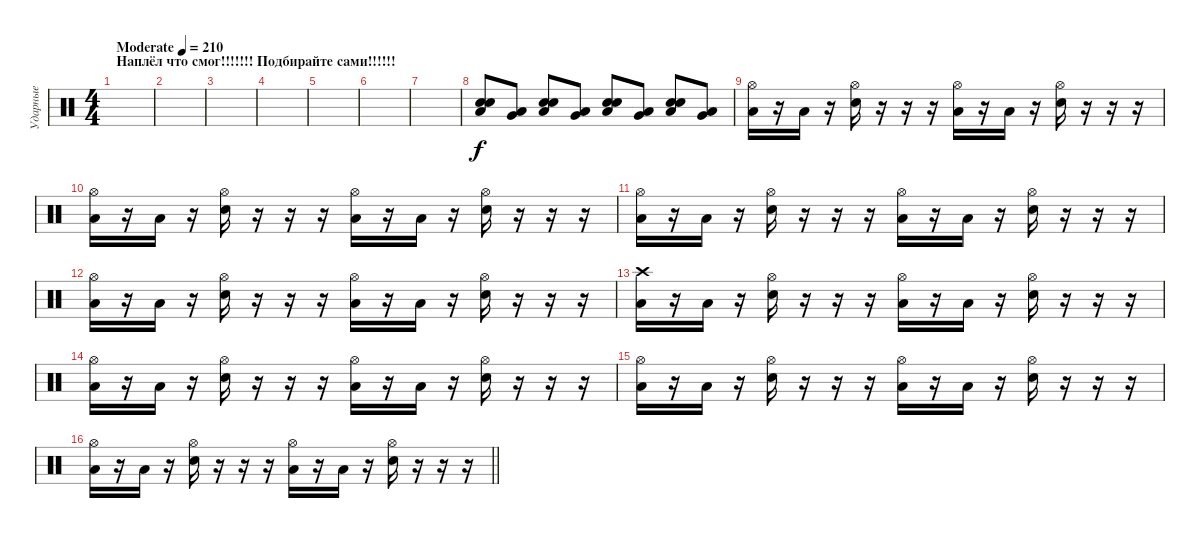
\track ("Ударные" "Ударные") {instrument percussion}
\staff {score}
\articulation defaults
\ts (4 4)
\section ("" "Наплёл что смог!!!!!!! Подбирайте сами!!!!!!")
\tempo (210 "Moderate")
\clef neutral
\ks c
|
|
|
|
|
|
|
("Electric Snare (hit)" "Snare (hit) 2" "Low Tom (hit)").8 ("Very Low Tom (hit)" "Low Floor Tom (hit)").8 ("Electric Snare (hit)" "Snare (hit) 2" "Low Tom (hit)").8 ("Very Low Tom (hit)" "Low Floor Tom (hit)").8 ("Electric Snare (hit)" "Snare (hit) 2" "Low Tom (hit)").8 ("Very Low Tom (hit)" "Low Floor Tom (hit)").8 ("Electric Snare (hit)" "Snare (hit) 2" "Low Tom (hit)").8 ("Very Low Tom (hit)" "Low Floor Tom (hit)").8 |
("Low Floor Tom (hit)" "Hi-Hat (open)").16 r.16 "Low Floor Tom (hit)".16 r.16 ("Hi-Hat (open)" "Electric Snare (hit)").16 r.16 r.16 r.16 ("Hi-Hat (open)" "Low Floor Tom (hit)").16 r.16 "Low Floor Tom (hit)".16 r.16 ("Hi-Hat (open)" "Electric Snare (hit)").16 r.16 r.16 r.16 |
("Low Floor Tom (hit)" "Hi-Hat (open)").16 r.16 "Low Floor Tom (hit)".16 r.16 ("Hi-Hat (open)" "Electric Snare (hit)").16 r.16 r.16 r.16 ("Hi-Hat (open)" "Low Floor Tom (hit)").16 r.16 "Low Floor Tom (hit)".16 r.16 ("Hi-Hat (open)" "Electric Snare (hit)").16 r.16 r.16 r.16 |
("Low Floor Tom (hit)" "Hi-Hat (open)").16 r.16 "Low Floor Tom (hit)".16 r.16 ("Hi-Hat (open)" "Electric Snare (hit)").16 r.16 r.16 r.16 ("Hi-Hat (open)" "Low Floor Tom (hit)").16 r.16 "Low Floor Tom (hit)".16 r.16 ("Hi-Hat (open)" "Electric Snare (hit)").16 r.16 r.16 r.16 |
("Low Floor Tom (hit)" "Hi-Hat (open)").16 r.16 "Low Floor Tom (hit)".16 r.16 ("Hi-Hat (open)" "Electric Snare (hit)").16 r.16 r.16 r.16 ("Hi-Hat (open)" "Low Floor Tom (hit)").16 r.16 "Low Floor Tom (hit)".16 r.16 ("Hi-Hat (open)" "Electric Snare (hit)").16 r.16 r.16 r.16 |
("Low Floor Tom (hit)" "Crash high (hit)").16 r.16 "Low Floor Tom (hit)".16 r.16 ("Hi-Hat (open)" "Electric Snare (hit)").16 r.16 r.16 r.16 ("Hi-Hat (open)" "Low Floor Tom (hit)").16 r.16 "Low Floor Tom (hit)".16 r.16 ("Hi-Hat (open)" "Electric Snare (hit)").16 r.16 r.16 r.16 |
("Low Floor Tom (hit)" "Hi-Hat (open)").16 r.16 "Low Floor Tom (hit)".16 r.16 ("Hi-Hat (open)" "Electric Snare (hit)").16 r.16 r.16 r.16 ("Hi-Hat (open)" "Low Floor Tom (hit)").16 r.16 "Low Floor Tom (hit)".16 r.16 ("Hi-Hat (open)" "Electric Snare (hit)").16 r.16 r.16 r.16 |
("Low Floor Tom (hit)" "Hi-Hat (open)").16 r.16 "Low Floor Tom (hit)".16 r.16 ("Hi-Hat (open)" "Electric Snare (hit)").16 r.16 r.16 r.16 ("Hi-Hat (open)" "Low Floor Tom (hit)").16 r.16 "Low Floor Tom (hit)".16 r.16 ("Hi-Hat (open)" "Electric Snare (hit)").16 r.16 r.16 r.16 |
\barLineRight lightlight
("Low Floor Tom (hit)" "Hi-Hat (open)").16 r.16 "Low Floor Tom (hit)".16 r.16 ("Hi-Hat (open)" "Electric Snare (hit)").16 r.16 r.16 r.16 ("Hi-Hat (open)" "Low Floor Tom (hit)").16 r.16 "Low Floor Tom (hit)".16 r.16 ("Hi-Hat (open)" "Electric Snare (hit)").16 r.16 r.16 r.16
